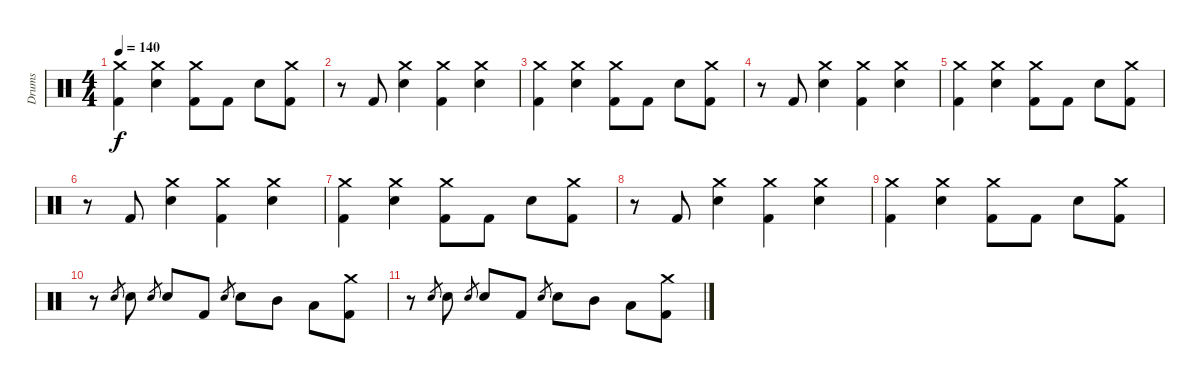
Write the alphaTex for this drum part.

\track ("Drums" "Drums") {instrument percussion}
\staff {score}
\articulation defaults
\ts (4 4)
\tempo 140
\clef neutral
\ks c
("Crash medium (hit)" "Kick (hit) 2").4{dy f} ("Crash medium (hit)" "Snare (hit) 2").4 ("Crash medium (hit)" "Kick (hit) 2").8 "Kick (hit) 2".8 "Snare (hit) 2".8 ("Crash medium (hit)" "Kick (hit) 2").8 |
r.8 "Kick (hit) 2".8 ("Crash medium (hit)" "Snare (hit) 2").4 ("Crash medium (hit)" "Kick (hit) 2").4 ("Crash medium (hit)" "Snare (hit) 2").4 |
("Crash medium (hit)" "Kick (hit) 2").4 ("Crash medium (hit)" "Snare (hit) 2").4 ("Crash medium (hit)" "Kick (hit) 2").8 "Kick (hit) 2".8 "Snare (hit) 2".8 ("Crash medium (hit)" "Kick (hit) 2").8 |
r.8 "Kick (hit) 2".8 ("Crash medium (hit)" "Snare (hit) 2").4 ("Crash medium (hit)" "Kick (hit) 2").4 ("Crash medium (hit)" "Snare (hit) 2").4 |
("Crash medium (hit)" "Kick (hit) 2").4 ("Crash medium (hit)" "Snare (hit) 2").4 ("Crash medium (hit)" "Kick (hit) 2").8 "Kick (hit) 2".8 "Snare (hit) 2".8 ("Crash medium (hit)" "Kick (hit) 2").8 |
r.8 "Kick (hit) 2".8 ("Crash medium (hit)" "Snare (hit) 2").4 ("Crash medium (hit)" "Kick (hit) 2").4 ("Crash medium (hit)" "Snare (hit) 2").4 |
("Crash medium (hit)" "Kick (hit) 2").4 ("Crash medium (hit)" "Snare (hit) 2").4 ("Crash medium (hit)" "Kick (hit) 2").8 "Kick (hit) 2".8 "Snare (hit) 2".8 ("Crash medium (hit)" "Kick (hit) 2").8 |
r.8 "Kick (hit) 2".8 ("Crash medium (hit)" "Snare (hit) 2").4 ("Crash medium (hit)" "Kick (hit) 2").4 ("Crash medium (hit)" "Snare (hit) 2").4 |
("Crash medium (hit)" "Kick (hit) 2").4 ("Crash medium (hit)" "Snare (hit) 2").4 ("Crash medium (hit)" "Kick (hit) 2").8 "Kick (hit) 2".8 "Snare (hit) 2".8 ("Crash medium (hit)" "Kick (hit) 2").8 |
r.8 "Snare (hit) 2".8{gr} "Snare (hit) 2".8 "Snare (hit) 2".8{gr} "Snare (hit) 2".8 "Kick (hit) 2".8 "Snare (hit) 2".8{gr} "Snare (hit) 2".8 "Mid Tom (hit)".8 "Low Tom (hit)".8 ("Crash medium (hit)" "Kick (hit) 2").8 |
r.8 "Snare (hit) 2".8{gr} "Snare (hit) 2".8 "Snare (hit) 2".8{gr} "Snare (hit) 2".8 "Kick (hit) 2".8 "Snare (hit) 2".8{gr} "Snare (hit) 2".8 "Mid Tom (hit)".8 "Low Tom (hit)".8 ("Crash medium (hit)" "Kick (hit) 2").8
